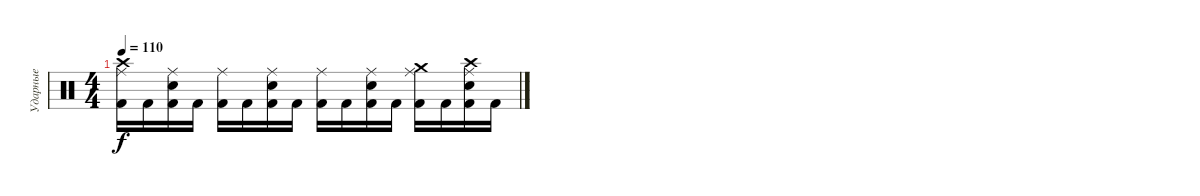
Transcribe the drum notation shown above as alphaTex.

\track ("Ударные" "Ударные") {instrument percussion}
\staff
\articulation defaults
\ts (4 4)
\tempo 110
\clef neutral
\ks c
("Ride (middle)" "Kick (hit) 2" "Crash high (hit)").16{dy f} "Kick (hit) 2".16 ("Ride (middle)" "Snare (hit) 2" "Kick (hit) 2").16 "Kick (hit) 2".16 ("Ride (middle)" "Kick (hit) 2").16 "Kick (hit) 2".16 ("Ride (middle)" "Snare (hit) 2" "Kick (hit) 2").16 "Kick (hit) 2".16 ("Ride (middle)" "Kick (hit) 2").16 "Kick (hit) 2".16 ("Ride (middle)" "Snare (hit) 2" "Kick (hit) 2").16 "Kick (hit) 2".16 ("Ride (middle)" "Kick (hit) 2" "Crash medium (hit)").16 "Kick (hit) 2".16 ("Ride (middle)" "Snare (hit) 2" "Kick (hit) 2" "Crash high (hit)").16 "Kick (hit) 2".16
